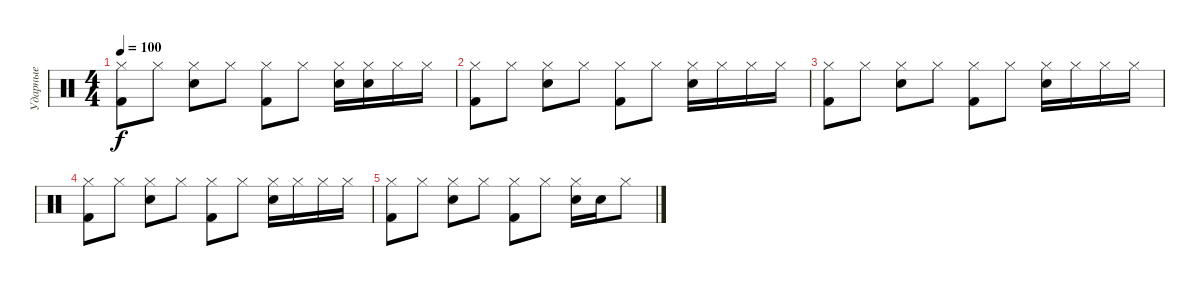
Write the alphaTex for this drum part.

\track ("Ударные" "Ударные") {instrument percussion}
\staff {score}
\articulation defaults
\ts (4 4)
\tempo 100
\clef neutral
\ks c
("Hi-Hat (closed)" "Kick (hit) 2").8{dy f} "Hi-Hat (closed)".8 ("Electric Snare (hit)" "Hi-Hat (closed)").8 "Hi-Hat (closed)".8 ("Hi-Hat (closed)" "Kick (hit) 2").8 "Hi-Hat (closed)".8 ("Electric Snare (hit)" "Hi-Hat (closed)").16 ("Electric Snare (hit)" "Hi-Hat (closed)").16 "Hi-Hat (closed)".16 "Hi-Hat (closed)".16 |
("Hi-Hat (closed)" "Kick (hit) 2").8 "Hi-Hat (closed)".8 ("Electric Snare (hit)" "Hi-Hat (closed)").8 "Hi-Hat (closed)".8 ("Hi-Hat (closed)" "Kick (hit) 2").8 "Hi-Hat (closed)".8 ("Electric Snare (hit)" "Hi-Hat (closed)").16 "Hi-Hat (closed)".16 "Hi-Hat (closed)".16 "Hi-Hat (closed)".16 |
("Hi-Hat (closed)" "Kick (hit) 2").8 "Hi-Hat (closed)".8 ("Electric Snare (hit)" "Hi-Hat (closed)").8 "Hi-Hat (closed)".8 ("Hi-Hat (closed)" "Kick (hit) 2").8 "Hi-Hat (closed)".8 ("Electric Snare (hit)" "Hi-Hat (closed)").16 "Hi-Hat (closed)".16 "Hi-Hat (closed)".16 "Hi-Hat (closed)".16 |
("Hi-Hat (closed)" "Kick (hit) 2").8 "Hi-Hat (closed)".8 ("Electric Snare (hit)" "Hi-Hat (closed)").8 "Hi-Hat (closed)".8 ("Hi-Hat (closed)" "Kick (hit) 2").8 "Hi-Hat (closed)".8 ("Electric Snare (hit)" "Hi-Hat (closed)").16 "Hi-Hat (closed)".16 "Hi-Hat (closed)".16 "Hi-Hat (closed)".16 |
("Hi-Hat (closed)" "Kick (hit) 2").8 "Hi-Hat (closed)".8 ("Electric Snare (hit)" "Hi-Hat (closed)").8 "Hi-Hat (closed)".8 ("Hi-Hat (closed)" "Kick (hit) 2").8 "Hi-Hat (closed)".8 ("Electric Snare (hit)" "Hi-Hat (closed)").16 "Electric Snare (hit)".16 "Hi-Hat (closed)".8
